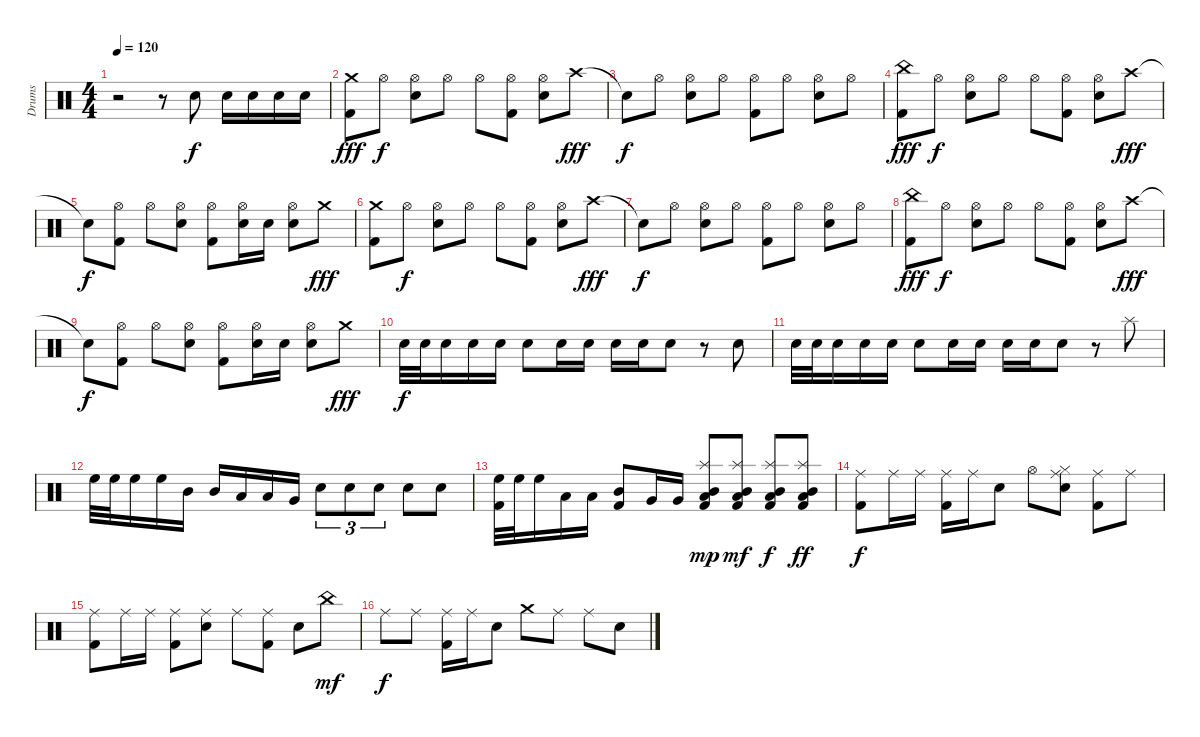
\track ("Drums" "Drums") {instrument percussion}
\staff {score}
\articulation defaults
\ts (4 4)
\tempo 120
\clef neutral
\ks c
r.2{dy f} r.8 "Electric Snare (hit)".8 "Electric Snare (hit)".16 "Electric Snare (hit)".16 "Electric Snare (hit)".16 "Electric Snare (hit)".16 |
("Crash medium (hit)" "Kick (hit) 2").8{dy fff} "Hi-Hat (open)".8{dy f} ("Hi-Hat (open)" "Electric Snare (hit)").8 "Hi-Hat (open)".8 "Hi-Hat (open)".8 ("Hi-Hat (open)" "Kick (hit) 2").8 ("Hi-Hat (open)" "Electric Snare (hit)").8 "Crash high (hit)".8{dy fff} |
"Snare (hit)"{t}.8{dy f} "Hi-Hat (open)".8 ("Hi-Hat (open)" "Electric Snare (hit)").8 "Hi-Hat (open)".8 ("Hi-Hat (open)" "Kick (hit) 2").8 "Hi-Hat (open)".8 ("Hi-Hat (open)" "Electric Snare (hit)").8 "Hi-Hat (open)".8 |
("China (hit)" "Kick (hit) 2").8{dy fff} "Hi-Hat (open)".8{dy f} ("Hi-Hat (open)" "Electric Snare (hit)").8 "Hi-Hat (open)".8 "Hi-Hat (open)".8 ("Hi-Hat (open)" "Kick (hit) 2").8 ("Hi-Hat (open)" "Electric Snare (hit)").8 "Crash high (hit)".8{dy fff} |
"Snare (hit)"{t}.8{dy f} ("Hi-Hat (open)" "Kick (hit) 2").8 "Hi-Hat (open)".8 ("Hi-Hat (open)" "Electric Snare (hit)").8 ("Hi-Hat (open)" "Kick (hit) 2").8 ("Hi-Hat (open)" "Electric Snare (hit)").16 "Electric Snare (hit)".16 ("Hi-Hat (open)" "Electric Snare (hit)").8 "Crash medium (hit)".8{dy fff} |
("Crash medium (hit)" "Kick (hit) 2").8 "Hi-Hat (open)".8{dy f} ("Hi-Hat (open)" "Electric Snare (hit)").8 "Hi-Hat (open)".8 "Hi-Hat (open)".8 ("Hi-Hat (open)" "Kick (hit) 2").8 ("Hi-Hat (open)" "Electric Snare (hit)").8 "Crash high (hit)".8{dy fff} |
"Snare (hit)"{t}.8{dy f} "Hi-Hat (open)".8 ("Hi-Hat (open)" "Electric Snare (hit)").8 "Hi-Hat (open)".8 ("Hi-Hat (open)" "Kick (hit) 2").8 "Hi-Hat (open)".8 ("Hi-Hat (open)" "Electric Snare (hit)").8 "Hi-Hat (open)".8 |
("China (hit)" "Kick (hit) 2").8{dy fff} "Hi-Hat (open)".8{dy f} ("Hi-Hat (open)" "Electric Snare (hit)").8 "Hi-Hat (open)".8 "Hi-Hat (open)".8 ("Hi-Hat (open)" "Kick (hit) 2").8 ("Hi-Hat (open)" "Electric Snare (hit)").8 "Crash high (hit)".8{dy fff} |
"Snare (hit)"{t}.8{dy f} ("Hi-Hat (open)" "Kick (hit) 2").8 "Hi-Hat (open)".8 ("Hi-Hat (open)" "Electric Snare (hit)").8 ("Hi-Hat (open)" "Kick (hit) 2").8 ("Hi-Hat (open)" "Electric Snare (hit)").16 "Electric Snare (hit)".16 ("Hi-Hat (open)" "Electric Snare (hit)").8 "Crash medium (hit)".8{dy fff} |
"Electric Snare (hit)".32{dy f} "Electric Snare (hit)".32 "Electric Snare (hit)".16 "Electric Snare (hit)".16 "Electric Snare (hit)".16 "Electric Snare (hit)".8 "Electric Snare (hit)".16 "Electric Snare (hit)".16 "Electric Snare (hit)".16 "Electric Snare (hit)".16 "Electric Snare (hit)".8 r.8 "Electric Snare (hit)".8 |
"Electric Snare (hit)".32 "Electric Snare (hit)".32 "Electric Snare (hit)".16 "Electric Snare (hit)".16 "Electric Snare (hit)".16 "Electric Snare (hit)".8 "Electric Snare (hit)".16 "Electric Snare (hit)".16 "Electric Snare (hit)".16 "Electric Snare (hit)".16 "Electric Snare (hit)".8 r.8 "Splash (hit)".8 |
"High Floor Tom (hit)".32 "High Floor Tom (hit)".32 "High Floor Tom (hit)".16 "High Floor Tom (hit)".16 "Mid Tom (hit)".16 "Mid Tom (hit)".16 "Low Tom (hit)".16 "Low Tom (hit)".16 "Very Low Tom (hit)".16 "Electric Snare (hit)".8{tu (3 2)} "Electric Snare (hit)".8{tu (3 2)} "Electric Snare (hit)".8{tu (3 2)} "Electric Snare (hit)".8 "Electric Snare (hit)".8 |
("High Floor Tom (hit)" "Kick (hit) 2").32 "High Floor Tom (hit)".32 "High Floor Tom (hit)".16 "Low Tom (hit)".16 "Low Tom (hit)".16 ("Mid Tom (hit)" "Kick (hit) 2").8 "Very Low Tom (hit)".16 "Very Low Tom (hit)".16 ("Splash (hit)" "Low Tom (hit)" "Mid Tom (hit)" "Kick (hit) 2").8{dy mp} ("Splash (hit)" "Low Tom (hit)" "Mid Tom (hit)" "Kick (hit) 2").8{dy mf} ("Splash (hit)" "Low Tom (hit)" "Mid Tom (hit)" "Kick (hit) 2").8{dy f} ("Splash (hit)" "Low Tom (hit)" "Mid Tom (hit)" "Kick (hit) 2").8{dy ff} |
("Ride (middle)" "Kick (hit) 2").8{dy f} "Ride (middle)".16 "Ride (middle)".16 ("Ride (middle)" "Kick (hit) 2").16 "Ride (middle)".16 "Electric Snare (hit)".8 "Hi-Hat (open)".8 ("Ride (middle)" "Hi-Hat (closed)" "Electric Snare (hit)").8 ("Ride (middle)" "Kick (hit) 2").8 "Ride (middle)".8 |
("Ride (middle)" "Kick (hit) 2").8 "Ride (middle)".16 "Ride (middle)".16 ("Ride (middle)" "Kick (hit) 2").8 ("Ride (middle)" "Electric Snare (hit)").8 "Ride (middle)".8 ("Ride (middle)" "Kick (hit) 2").8 "Electric Snare (hit)".8 "China (hit)".8{dy mf} |
"Ride (middle)".8{dy f} "Ride (middle)".8 ("Ride (middle)" "Kick (hit) 2").16 "Ride (middle)".16 "Electric Snare (hit)".8 "Crash medium (hit)".8 "Ride (middle)".8 "Ride (middle)".8 "Electric Snare (hit)".8
